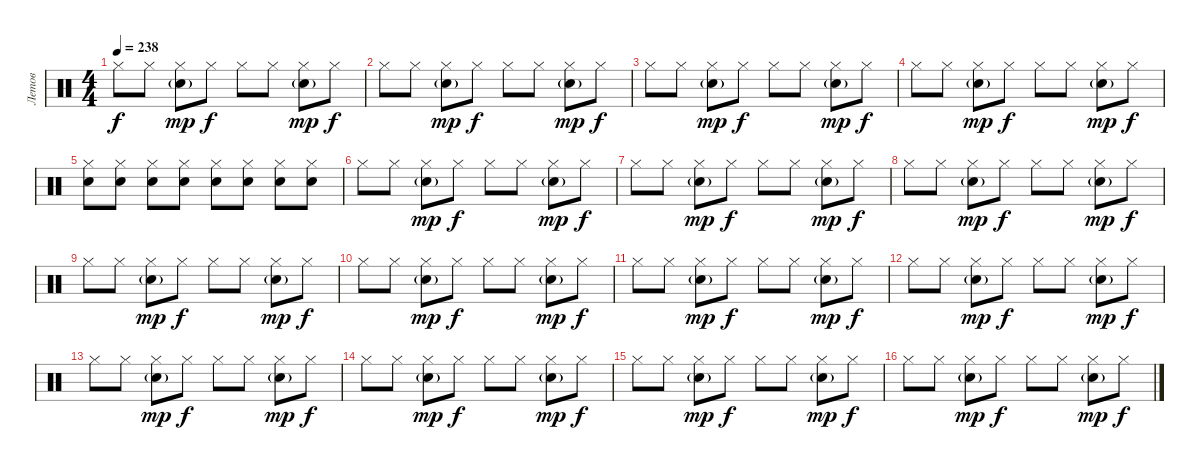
\track ("Летов" "Летов") {instrument percussion}
\staff {score}
\articulation defaults
\ts (4 4)
\tempo 238
\clef neutral
\ks c "Hi-Hat (closed)".8{dy f} "Hi-Hat (closed)".8
("Hi-Hat (closed)" "Snare (hit) 2"{g}).8{dy mp} "Hi-Hat (closed)".8{dy f} "Hi-Hat (closed)".8 "Hi-Hat (closed)".8 ("Hi-Hat (closed)" "Snare (hit) 2"{g}).8{dy mp} "Hi-Hat (closed)".8{dy f} |
"Hi-Hat (closed)".8 "Hi-Hat (closed)".8 ("Hi-Hat (closed)" "Snare (hit) 2"{g}).8{dy mp} "Hi-Hat (closed)".8{dy f} "Hi-Hat (closed)".8 "Hi-Hat (closed)".8 ("Hi-Hat (closed)" "Snare (hit) 2"{g}).8{dy mp} "Hi-Hat (closed)".8{dy f} |
"Hi-Hat (closed)".8 "Hi-Hat (closed)".8 ("Hi-Hat (closed)" "Snare (hit) 2"{g}).8{dy mp} "Hi-Hat (closed)".8{dy f} "Hi-Hat (closed)".8 "Hi-Hat (closed)".8 ("Hi-Hat (closed)" "Snare (hit) 2"{g}).8{dy mp} "Hi-Hat (closed)".8{dy f} |
"Hi-Hat (closed)".8 "Hi-Hat (closed)".8 ("Hi-Hat (closed)" "Snare (hit) 2"{g}).8{dy mp} "Hi-Hat (closed)".8{dy f} "Hi-Hat (closed)".8 "Hi-Hat (closed)".8 ("Hi-Hat (closed)" "Snare (hit) 2"{g}).8{dy mp} "Hi-Hat (closed)".8{dy f} |
("Hi-Hat (closed)" "Snare (hit) 2").8 ("Hi-Hat (closed)" "Snare (hit) 2").8 ("Hi-Hat (closed)" "Snare (hit) 2").8 ("Hi-Hat (closed)" "Snare (hit) 2").8 ("Hi-Hat (closed)" "Snare (hit) 2").8 ("Hi-Hat (closed)" "Snare (hit) 2").8 ("Hi-Hat (closed)" "Snare (hit) 2").8 ("Hi-Hat (closed)" "Snare (hit) 2").8 |
"Hi-Hat (closed)".8 "Hi-Hat (closed)".8 ("Hi-Hat (closed)" "Snare (hit) 2"{g}).8{dy mp} "Hi-Hat (closed)".8{dy f} "Hi-Hat (closed)".8 "Hi-Hat (closed)".8 ("Hi-Hat (closed)" "Snare (hit) 2"{g}).8{dy mp} "Hi-Hat (closed)".8{dy f} |
"Hi-Hat (closed)".8 "Hi-Hat (closed)".8 ("Hi-Hat (closed)" "Snare (hit) 2"{g}).8{dy mp} "Hi-Hat (closed)".8{dy f} "Hi-Hat (closed)".8 "Hi-Hat (closed)".8 ("Hi-Hat (closed)" "Snare (hit) 2"{g}).8{dy mp} "Hi-Hat (closed)".8{dy f} |
"Hi-Hat (closed)".8 "Hi-Hat (closed)".8 ("Hi-Hat (closed)" "Snare (hit) 2"{g}).8{dy mp} "Hi-Hat (closed)".8{dy f} "Hi-Hat (closed)".8 "Hi-Hat (closed)".8 ("Hi-Hat (closed)" "Snare (hit) 2"{g}).8{dy mp} "Hi-Hat (closed)".8{dy f} |
"Hi-Hat (closed)".8 "Hi-Hat (closed)".8 ("Hi-Hat (closed)" "Snare (hit) 2"{g}).8{dy mp} "Hi-Hat (closed)".8{dy f} "Hi-Hat (closed)".8 "Hi-Hat (closed)".8 ("Hi-Hat (closed)" "Snare (hit) 2"{g}).8{dy mp} "Hi-Hat (closed)".8{dy f} |
"Hi-Hat (closed)".8 "Hi-Hat (closed)".8 ("Hi-Hat (closed)" "Snare (hit) 2"{g}).8{dy mp} "Hi-Hat (closed)".8{dy f} "Hi-Hat (closed)".8 "Hi-Hat (closed)".8 ("Hi-Hat (closed)" "Snare (hit) 2"{g}).8{dy mp} "Hi-Hat (closed)".8{dy f} |
"Hi-Hat (closed)".8 "Hi-Hat (closed)".8 ("Hi-Hat (closed)" "Snare (hit) 2"{g}).8{dy mp} "Hi-Hat (closed)".8{dy f} "Hi-Hat (closed)".8 "Hi-Hat (closed)".8 ("Hi-Hat (closed)" "Snare (hit) 2"{g}).8{dy mp} "Hi-Hat (closed)".8{dy f} |
"Hi-Hat (closed)".8 "Hi-Hat (closed)".8 ("Hi-Hat (closed)" "Snare (hit) 2"{g}).8{dy mp} "Hi-Hat (closed)".8{dy f} "Hi-Hat (closed)".8 "Hi-Hat (closed)".8 ("Hi-Hat (closed)" "Snare (hit) 2"{g}).8{dy mp} "Hi-Hat (closed)".8{dy f} |
"Hi-Hat (closed)".8 "Hi-Hat (closed)".8 ("Hi-Hat (closed)" "Snare (hit) 2"{g}).8{dy mp} "Hi-Hat (closed)".8{dy f} "Hi-Hat (closed)".8 "Hi-Hat (closed)".8 ("Hi-Hat (closed)" "Snare (hit) 2"{g}).8{dy mp} "Hi-Hat (closed)".8{dy f} |
"Hi-Hat (closed)".8 "Hi-Hat (closed)".8 ("Hi-Hat (closed)" "Snare (hit) 2"{g}).8{dy mp} "Hi-Hat (closed)".8{dy f} "Hi-Hat (closed)".8 "Hi-Hat (closed)".8 ("Hi-Hat (closed)" "Snare (hit) 2"{g}).8{dy mp} "Hi-Hat (closed)".8{dy f} |
"Hi-Hat (closed)".8 "Hi-Hat (closed)".8 ("Hi-Hat (closed)" "Snare (hit) 2"{g}).8{dy mp} "Hi-Hat (closed)".8{dy f} "Hi-Hat (closed)".8 "Hi-Hat (closed)".8 ("Hi-Hat (closed)" "Snare (hit) 2"{g}).8{dy mp} "Hi-Hat (closed)".8{dy f} |
"Hi-Hat (closed)".8 "Hi-Hat (closed)".8 ("Hi-Hat (closed)" "Snare (hit) 2"{g}).8{dy mp} "Hi-Hat (closed)".8{dy f} "Hi-Hat (closed)".8 "Hi-Hat (closed)".8 ("Hi-Hat (closed)" "Snare (hit) 2"{g}).8{dy mp} "Hi-Hat (closed)".8{dy f}
